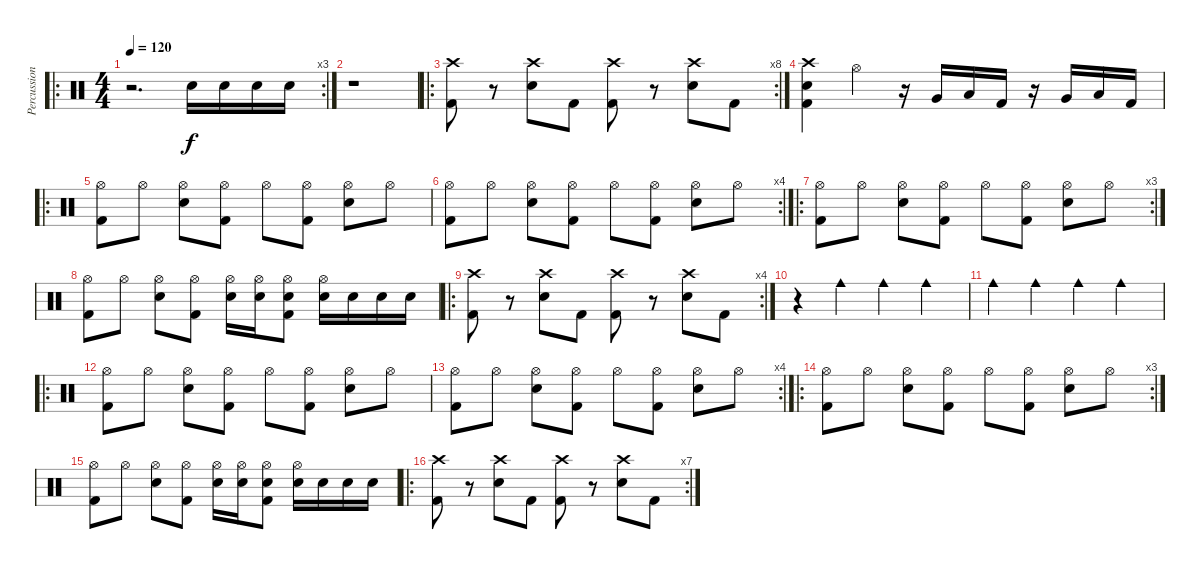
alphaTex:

\track ("Percussions" "Percussion") {instrument percussion}
\staff {score}
\articulation defaults
\ro
\rc 3
\ts (4 4)
\tempo 120
\clef neutral
\ks c
r.2{d dy f} "Snare (hit) 2".16 "Snare (hit) 2".16 "Snare (hit) 2".16 "Snare (hit) 2".16 |
r.1 |
\ro
\rc 8
("Kick (hit) 2" "Crash high (hit)").8 r.8 ("Snare (hit) 2" "Crash high (hit)").8 "Kick (hit) 2".8 ("Kick (hit) 2" "Crash high (hit)").8 r.8 ("Snare (hit) 2" "Crash high (hit)").8 "Kick (hit) 2".8 |
("Kick (hit) 2" "Snare (hit) 2" "Crash high (hit)").4 "Hi-Hat (open)".4 r.16 "Very Low Tom (hit)".16 "Low Floor Tom (hit)".16 "Kick (hit) 2".16 r.16 "Very Low Tom (hit)".16 "Low Floor Tom (hit)".16 "Kick (hit) 2".16 |
\ro
("Kick (hit) 2" "Hi-Hat (open)").8 "Hi-Hat (open)".8 ("Snare (hit) 2" "Hi-Hat (open)").8 ("Kick (hit) 2" "Hi-Hat (open)").8 "Hi-Hat (open)".8 ("Kick (hit) 2" "Hi-Hat (open)").8 ("Snare (hit) 2" "Hi-Hat (open)").8 "Hi-Hat (open)".8 |
\rc 4
("Kick (hit) 2" "Hi-Hat (open)").8 "Hi-Hat (open)".8 ("Snare (hit) 2" "Hi-Hat (open)").8 ("Kick (hit) 2" "Hi-Hat (open)").8 "Hi-Hat (open)".8 ("Kick (hit) 2" "Hi-Hat (open)").8 ("Snare (hit) 2" "Hi-Hat (open)").8 "Hi-Hat (open)".8 |
\ro
\rc 3
("Kick (hit) 2" "Hi-Hat (open)").8 "Hi-Hat (open)".8 ("Snare (hit) 2" "Hi-Hat (open)").8 ("Kick (hit) 2" "Hi-Hat (open)").8 "Hi-Hat (open)".8 ("Kick (hit) 2" "Hi-Hat (open)").8 ("Snare (hit) 2" "Hi-Hat (open)").8 "Hi-Hat (open)".8 |
("Kick (hit) 2" "Hi-Hat (open)").8 "Hi-Hat (open)".8 ("Snare (hit) 2" "Hi-Hat (open)").8 ("Kick (hit) 2" "Hi-Hat (open)").8 ("Snare (hit) 2" "Hi-Hat (open)").16 ("Snare (hit) 2" "Hi-Hat (open)").16 ("Kick (hit) 2" "Snare (hit) 2" "Hi-Hat (open)").8 ("Snare (hit) 2" "Hi-Hat (open)").16 "Snare (hit) 2".16 "Snare (hit) 2".16 "Snare (hit) 2".16 |
\ro
\rc 4
("Kick (hit) 2" "Crash high (hit)").8 r.8 ("Snare (hit) 2" "Crash high (hit)").8 "Kick (hit) 2".8 ("Kick (hit) 2" "Crash high (hit)").8 r.8 ("Snare (hit) 2" "Crash high (hit)").8 "Kick (hit) 2".8 |
r.4 "Cowbell medium (hit)".4 "Cowbell medium (hit)".4 "Cowbell medium (hit)".4 |
"Cowbell medium (hit)".4 "Cowbell medium (hit)".4 "Cowbell medium (hit)".4 "Cowbell medium (hit)".4 |
\ro
("Kick (hit) 2" "Hi-Hat (open)").8 "Hi-Hat (open)".8 ("Snare (hit) 2" "Hi-Hat (open)").8 ("Kick (hit) 2" "Hi-Hat (open)").8 "Hi-Hat (open)".8 ("Kick (hit) 2" "Hi-Hat (open)").8 ("Snare (hit) 2" "Hi-Hat (open)").8 "Hi-Hat (open)".8 |
\rc 4
("Kick (hit) 2" "Hi-Hat (open)").8 "Hi-Hat (open)".8 ("Snare (hit) 2" "Hi-Hat (open)").8 ("Kick (hit) 2" "Hi-Hat (open)").8 "Hi-Hat (open)".8 ("Kick (hit) 2" "Hi-Hat (open)").8 ("Snare (hit) 2" "Hi-Hat (open)").8 "Hi-Hat (open)".8 |
\ro
\rc 3
("Kick (hit) 2" "Hi-Hat (open)").8 "Hi-Hat (open)".8 ("Snare (hit) 2" "Hi-Hat (open)").8 ("Kick (hit) 2" "Hi-Hat (open)").8 "Hi-Hat (open)".8 ("Kick (hit) 2" "Hi-Hat (open)").8 ("Snare (hit) 2" "Hi-Hat (open)").8 "Hi-Hat (open)".8 |
("Kick (hit) 2" "Hi-Hat (open)").8 "Hi-Hat (open)".8 ("Snare (hit) 2" "Hi-Hat (open)").8 ("Kick (hit) 2" "Hi-Hat (open)").8 ("Snare (hit) 2" "Hi-Hat (open)").16 ("Snare (hit) 2" "Hi-Hat (open)").16 ("Kick (hit) 2" "Snare (hit) 2" "Hi-Hat (open)").8 ("Snare (hit) 2" "Hi-Hat (open)").16 "Snare (hit) 2".16 "Snare (hit) 2".16 "Snare (hit) 2".16 |
\ro
\rc 7
("Kick (hit) 2" "Crash high (hit)").8 r.8 ("Snare (hit) 2" "Crash high (hit)").8 "Kick (hit) 2".8 ("Kick (hit) 2" "Crash high (hit)").8 r.8 ("Snare (hit) 2" "Crash high (hit)").8 "Kick (hit) 2".8
